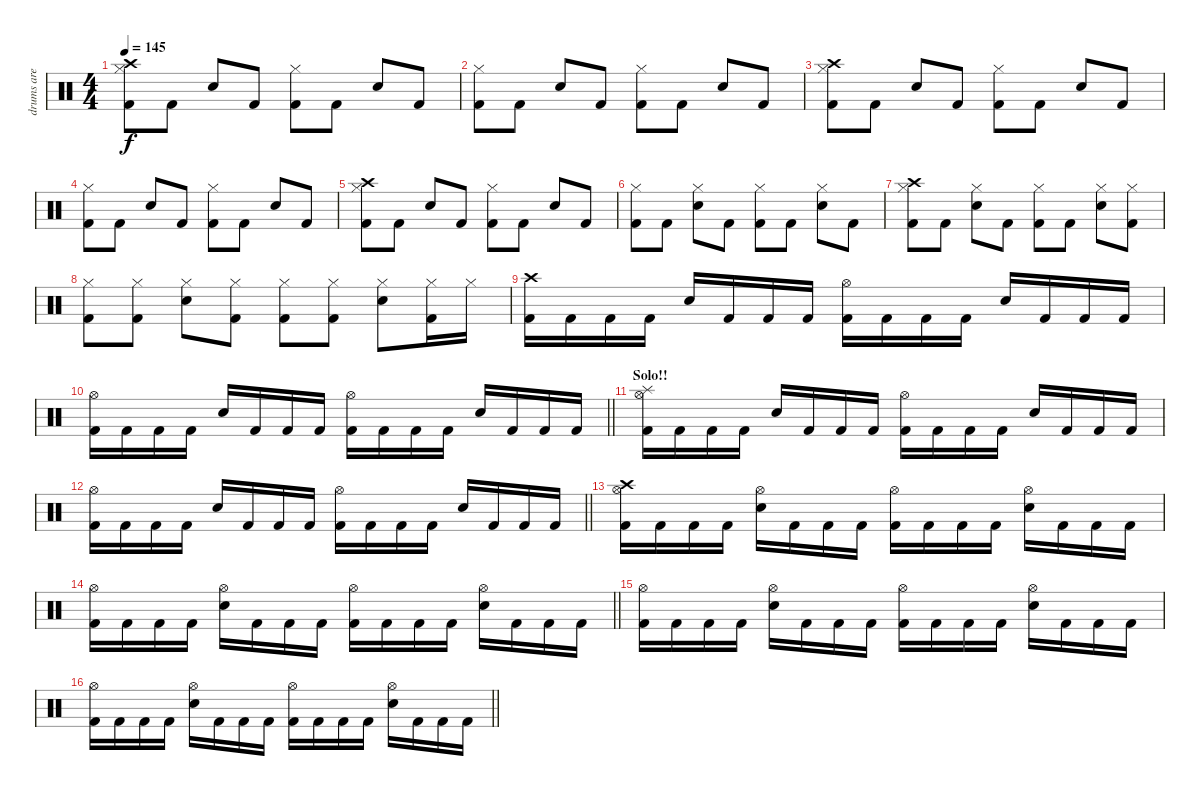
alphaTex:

\track ("drums are cool   >.<" "drums are ") {instrument percussion}
\staff {score}
\articulation defaults
\ts (4 4)
\tempo 145
\clef neutral
\ks c
("Crash high (hit)" "Hi-Hat (closed)" "Kick (hit) 2").8{dy f volume 13} "Kick (hit) 2".8 "Snare (hit) 2".8 "Kick (hit) 2".8 ("Hi-Hat (closed)" "Kick (hit) 2").8 "Kick (hit) 2".8 "Snare (hit) 2".8 "Kick (hit) 2".8 |
("Hi-Hat (closed)" "Kick (hit) 2").8 "Kick (hit) 2".8 "Snare (hit) 2".8 "Kick (hit) 2".8 ("Hi-Hat (closed)" "Kick (hit) 2").8 "Kick (hit) 2".8 "Snare (hit) 2".8 "Kick (hit) 2".8 |
("Crash high (hit)" "Hi-Hat (closed)" "Kick (hit) 2").8 "Kick (hit) 2".8 "Snare (hit) 2".8 "Kick (hit) 2".8 ("Hi-Hat (closed)" "Kick (hit) 2").8 "Kick (hit) 2".8 "Snare (hit) 2".8 "Kick (hit) 2".8 |
("Hi-Hat (closed)" "Kick (hit) 2").8 "Kick (hit) 2".8 "Snare (hit) 2".8 "Kick (hit) 2".8 ("Hi-Hat (closed)" "Kick (hit) 2").8 "Kick (hit) 2".8 "Snare (hit) 2".8 "Kick (hit) 2".8 |
("Crash high (hit)" "Hi-Hat (closed)" "Kick (hit) 2").8 "Kick (hit) 2".8 "Snare (hit) 2".8 "Kick (hit) 2".8 ("Hi-Hat (closed)" "Kick (hit) 2").8 "Kick (hit) 2".8 "Snare (hit) 2".8 "Kick (hit) 2".8 |
("Hi-Hat (closed)" "Kick (hit) 2").8 "Kick (hit) 2".8 ("Hi-Hat (closed)" "Snare (hit) 2").8 "Kick (hit) 2".8 ("Hi-Hat (closed)" "Kick (hit) 2").8 "Kick (hit) 2".8 ("Hi-Hat (closed)" "Snare (hit) 2").8 "Kick (hit) 2".8 |
("Crash high (hit)" "Hi-Hat (closed)" "Kick (hit) 2").8 "Kick (hit) 2".8 ("Hi-Hat (closed)" "Snare (hit) 2").8 "Kick (hit) 2".8 ("Hi-Hat (closed)" "Kick (hit) 2").8 "Kick (hit) 2".8 ("Hi-Hat (closed)" "Snare (hit) 2").8 ("Hi-Hat (closed)" "Kick (hit) 2").8 |
("Hi-Hat (closed)" "Kick (hit) 2").8 ("Hi-Hat (closed)" "Kick (hit) 2").8 ("Hi-Hat (closed)" "Snare (hit) 2").8 ("Hi-Hat (closed)" "Kick (hit) 2").8 ("Hi-Hat (closed)" "Kick (hit) 2").8 ("Hi-Hat (closed)" "Kick (hit) 2").8 ("Hi-Hat (closed)" "Snare (hit) 2").8 ("Hi-Hat (closed)" "Kick (hit) 2").16 "Hi-Hat (closed)".16 |
("Crash high (hit)" "Kick (hit) 2").16 "Kick (hit) 2".16 "Kick (hit) 2".16 "Kick (hit) 2".16 "Snare (hit) 2".16 "Kick (hit) 2".16 "Kick (hit) 2".16 "Kick (hit) 2".16 ("Hi-Hat (open)" "Kick (hit) 2").16 "Kick (hit) 2".16 "Kick (hit) 2".16 "Kick (hit) 2".16 "Snare (hit) 2".16 "Kick (hit) 2".16 "Kick (hit) 2".16 "Kick (hit) 2".16 |
\barLineRight lightlight
("Hi-Hat (open)" "Kick (hit) 2").16 "Kick (hit) 2".16 "Kick (hit) 2".16 "Kick (hit) 2".16 "Snare (hit) 2".16 "Kick (hit) 2".16 "Kick (hit) 2".16 "Kick (hit) 2".16 ("Hi-Hat (open)" "Kick (hit) 2").16 "Kick (hit) 2".16 "Kick (hit) 2".16 "Kick (hit) 2".16 "Snare (hit) 2".16 "Kick (hit) 2".16 "Kick (hit) 2".16 "Kick (hit) 2".16 |
\section ("" "Solo!!")
("Splash (hit)" "Hi-Hat (open)" "Kick (hit) 2").16 "Kick (hit) 2".16 "Kick (hit) 2".16 "Kick (hit) 2".16 "Snare (hit) 2".16 "Kick (hit) 2".16 "Kick (hit) 2".16 "Kick (hit) 2".16 ("Hi-Hat (open)" "Kick (hit) 2").16 "Kick (hit) 2".16 "Kick (hit) 2".16 "Kick (hit) 2".16 "Snare (hit) 2".16 "Kick (hit) 2".16 "Kick (hit) 2".16 "Kick (hit) 2".16 |
\barLineRight lightlight
("Hi-Hat (open)" "Kick (hit) 2").16 "Kick (hit) 2".16 "Kick (hit) 2".16 "Kick (hit) 2".16 "Snare (hit) 2".16 "Kick (hit) 2".16 "Kick (hit) 2".16 "Kick (hit) 2".16 ("Hi-Hat (open)" "Kick (hit) 2").16 "Kick (hit) 2".16 "Kick (hit) 2".16 "Kick (hit) 2".16 "Snare (hit) 2".16 "Kick (hit) 2".16 "Kick (hit) 2".16 "Kick (hit) 2".16 |
("Crash high (hit)" "Hi-Hat (open)" "Kick (hit) 2").16 "Kick (hit) 2".16 "Kick (hit) 2".16 "Kick (hit) 2".16 ("Hi-Hat (open)" "Snare (hit) 2").16 "Kick (hit) 2".16 "Kick (hit) 2".16 "Kick (hit) 2".16 ("Hi-Hat (open)" "Kick (hit) 2").16 "Kick (hit) 2".16 "Kick (hit) 2".16 "Kick (hit) 2".16 ("Hi-Hat (open)" "Snare (hit) 2").16 "Kick (hit) 2".16 "Kick (hit) 2".16 "Kick (hit) 2".16 |
\barLineRight lightlight
("Hi-Hat (open)" "Kick (hit) 2").16 "Kick (hit) 2".16 "Kick (hit) 2".16 "Kick (hit) 2".16 ("Hi-Hat (open)" "Snare (hit) 2").16 "Kick (hit) 2".16 "Kick (hit) 2".16 "Kick (hit) 2".16 ("Hi-Hat (open)" "Kick (hit) 2").16 "Kick (hit) 2".16 "Kick (hit) 2".16 "Kick (hit) 2".16 ("Hi-Hat (open)" "Snare (hit) 2").16 "Kick (hit) 2".16 "Kick (hit) 2".16 "Kick (hit) 2".16 |
("Hi-Hat (open)" "Kick (hit) 2").16 "Kick (hit) 2".16 "Kick (hit) 2".16 "Kick (hit) 2".16 ("Hi-Hat (open)" "Snare (hit) 2").16 "Kick (hit) 2".16 "Kick (hit) 2".16 "Kick (hit) 2".16 ("Hi-Hat (open)" "Kick (hit) 2").16 "Kick (hit) 2".16 "Kick (hit) 2".16 "Kick (hit) 2".16 ("Hi-Hat (open)" "Snare (hit) 2").16 "Kick (hit) 2".16 "Kick (hit) 2".16 "Kick (hit) 2".16 |
\barLineRight lightlight
("Hi-Hat (open)" "Kick (hit) 2").16 "Kick (hit) 2".16 "Kick (hit) 2".16 "Kick (hit) 2".16 ("Hi-Hat (open)" "Snare (hit) 2").16 "Kick (hit) 2".16 "Kick (hit) 2".16 "Kick (hit) 2".16 ("Hi-Hat (open)" "Kick (hit) 2").16 "Kick (hit) 2".16 "Kick (hit) 2".16 "Kick (hit) 2".16 ("Hi-Hat (open)" "Snare (hit) 2").16 "Kick (hit) 2".16 "Kick (hit) 2".16 "Kick (hit) 2".16
